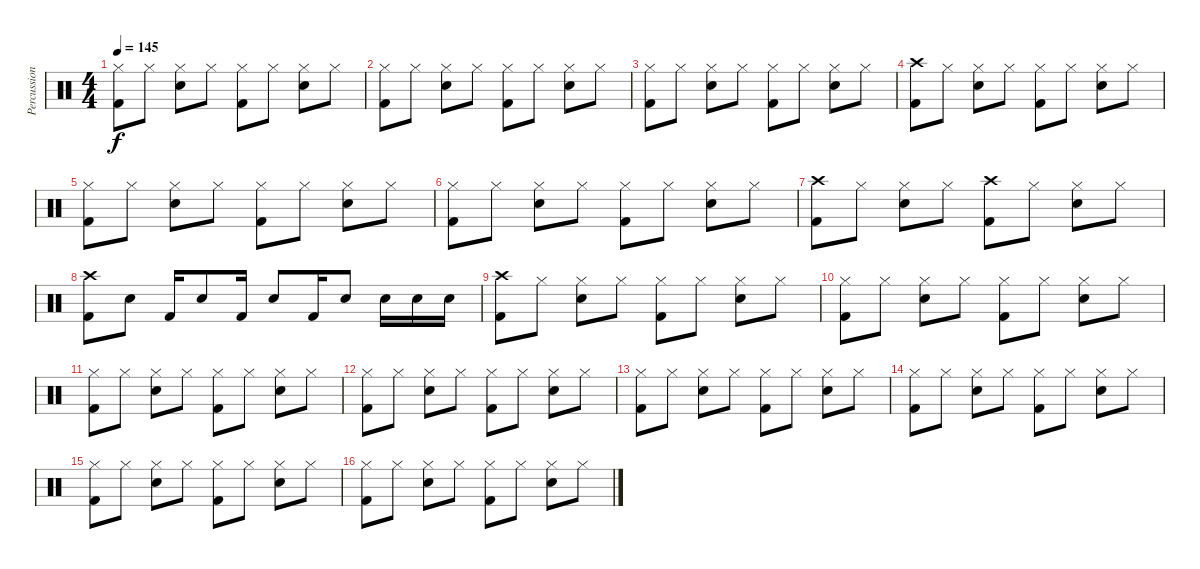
\track ("Percussion" "Percussion") {instrument percussion}
\staff {score}
\articulation defaults
\ts (4 4)
\tempo 145
\clef neutral
\ks c
("Hi-Hat (closed)" "Kick (hit) 2").8{dy f} "Hi-Hat (closed)".8 ("Hi-Hat (closed)" "Snare (hit) 2").8 "Hi-Hat (closed)".8 ("Hi-Hat (closed)" "Kick (hit) 2").8 "Hi-Hat (closed)".8 ("Hi-Hat (closed)" "Snare (hit) 2").8 "Hi-Hat (closed)".8 |
("Hi-Hat (closed)" "Kick (hit) 2").8 "Hi-Hat (closed)".8 ("Hi-Hat (closed)" "Snare (hit) 2").8 "Hi-Hat (closed)".8 ("Hi-Hat (closed)" "Kick (hit) 2").8 "Hi-Hat (closed)".8 ("Hi-Hat (closed)" "Snare (hit) 2").8 "Hi-Hat (closed)".8 |
("Hi-Hat (closed)" "Kick (hit) 2").8 "Hi-Hat (closed)".8 ("Hi-Hat (closed)" "Snare (hit) 2").8 "Hi-Hat (closed)".8 ("Hi-Hat (closed)" "Kick (hit) 2").8 "Hi-Hat (closed)".8 ("Hi-Hat (closed)" "Snare (hit) 2").8 "Hi-Hat (closed)".8 |
("Crash high (hit)" "Kick (hit) 2").8 "Hi-Hat (closed)".8 ("Hi-Hat (closed)" "Snare (hit) 2").8 "Hi-Hat (closed)".8 ("Hi-Hat (closed)" "Kick (hit) 2").8 "Hi-Hat (closed)".8 ("Hi-Hat (closed)" "Snare (hit) 2").8 "Hi-Hat (closed)".8 |
("Hi-Hat (closed)" "Kick (hit) 2").8 "Hi-Hat (closed)".8 ("Hi-Hat (closed)" "Snare (hit) 2").8 "Hi-Hat (closed)".8 ("Hi-Hat (closed)" "Kick (hit) 2").8 "Hi-Hat (closed)".8 ("Hi-Hat (closed)" "Snare (hit) 2").8 "Hi-Hat (closed)".8 |
("Hi-Hat (closed)" "Kick (hit) 2").8 "Hi-Hat (closed)".8 ("Hi-Hat (closed)" "Snare (hit) 2").8 "Hi-Hat (closed)".8 ("Hi-Hat (closed)" "Kick (hit) 2").8 "Hi-Hat (closed)".8 ("Hi-Hat (closed)" "Snare (hit) 2").8 "Hi-Hat (closed)".8 |
("Crash high (hit)" "Kick (hit) 2").8 "Hi-Hat (closed)".8 ("Hi-Hat (closed)" "Snare (hit) 2").8 "Hi-Hat (closed)".8 ("Crash high (hit)" "Kick (hit) 2").8 "Hi-Hat (closed)".8 ("Hi-Hat (closed)" "Snare (hit) 2").8 "Hi-Hat (closed)".8 |
("Crash high (hit)" "Kick (hit) 2").8 "Electric Snare (hit)".8 "Kick (hit) 2".16 "Electric Snare (hit)".8 "Kick (hit) 2".16 "Electric Snare (hit)".8 "Kick (hit) 2".16 "Electric Snare (hit)".8 "Electric Snare (hit)".16 "Electric Snare (hit)".16 "Electric Snare (hit)".16 |
("Crash high (hit)" "Kick (hit) 2").8 "Hi-Hat (closed)".8 ("Hi-Hat (closed)" "Snare (hit) 2").8 "Hi-Hat (closed)".8 ("Hi-Hat (closed)" "Kick (hit) 2").8 "Hi-Hat (closed)".8 ("Hi-Hat (closed)" "Snare (hit) 2").8 "Hi-Hat (closed)".8 |
("Hi-Hat (closed)" "Kick (hit) 2").8 "Hi-Hat (closed)".8 ("Hi-Hat (closed)" "Snare (hit) 2").8 "Hi-Hat (closed)".8 ("Hi-Hat (closed)" "Kick (hit) 2").8 "Hi-Hat (closed)".8 ("Hi-Hat (closed)" "Snare (hit) 2").8 "Hi-Hat (closed)".8 |
("Hi-Hat (closed)" "Kick (hit) 2").8 "Hi-Hat (closed)".8 ("Hi-Hat (closed)" "Snare (hit) 2").8 "Hi-Hat (closed)".8 ("Hi-Hat (closed)" "Kick (hit) 2").8 "Hi-Hat (closed)".8 ("Hi-Hat (closed)" "Snare (hit) 2").8 "Hi-Hat (closed)".8 |
("Hi-Hat (closed)" "Kick (hit) 2").8 "Hi-Hat (closed)".8 ("Hi-Hat (closed)" "Snare (hit) 2").8 "Hi-Hat (closed)".8 ("Hi-Hat (closed)" "Kick (hit) 2").8 "Hi-Hat (closed)".8 ("Hi-Hat (closed)" "Snare (hit) 2").8 "Hi-Hat (closed)".8 |
("Hi-Hat (closed)" "Kick (hit) 2").8 "Hi-Hat (closed)".8 ("Hi-Hat (closed)" "Snare (hit) 2").8 "Hi-Hat (closed)".8 ("Hi-Hat (closed)" "Kick (hit) 2").8 "Hi-Hat (closed)".8 ("Hi-Hat (closed)" "Snare (hit) 2").8 "Hi-Hat (closed)".8 |
("Hi-Hat (closed)" "Kick (hit) 2").8 "Hi-Hat (closed)".8 ("Hi-Hat (closed)" "Snare (hit) 2").8 "Hi-Hat (closed)".8 ("Hi-Hat (closed)" "Kick (hit) 2").8 "Hi-Hat (closed)".8 ("Hi-Hat (closed)" "Snare (hit) 2").8 "Hi-Hat (closed)".8 |
("Hi-Hat (closed)" "Kick (hit) 2").8 "Hi-Hat (closed)".8 ("Hi-Hat (closed)" "Snare (hit) 2").8 "Hi-Hat (closed)".8 ("Hi-Hat (closed)" "Kick (hit) 2").8 "Hi-Hat (closed)".8 ("Hi-Hat (closed)" "Snare (hit) 2").8 "Hi-Hat (closed)".8 |
("Hi-Hat (closed)" "Kick (hit) 2").8 "Hi-Hat (closed)".8 ("Hi-Hat (closed)" "Snare (hit) 2").8 "Hi-Hat (closed)".8 ("Hi-Hat (closed)" "Kick (hit) 2").8 "Hi-Hat (closed)".8 ("Hi-Hat (closed)" "Snare (hit) 2").8 "Hi-Hat (closed)".8
